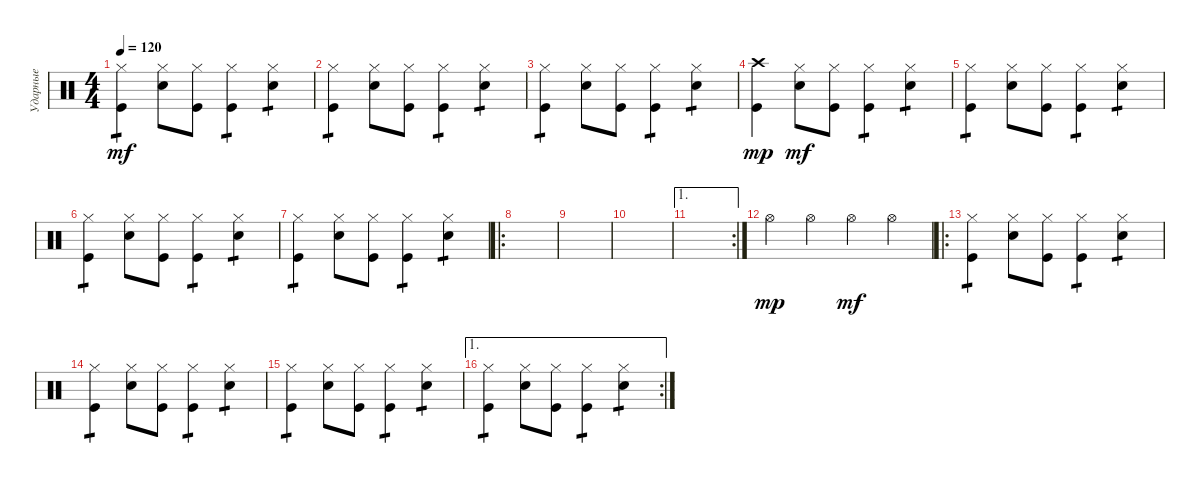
\track ("Ударные" "Ударные") {instrument percussion}
\staff {score}
\articulation defaults
\ts (4 4)
\tempo 120
\clef neutral
\ks c
("Kick (hit)" "Hi-Hat (closed)").4{tp 1 dy mf} ("Snare (hit) 2" "Hi-Hat (closed)").8 ("Kick (hit)" "Hi-Hat (closed)").8 ("Kick (hit)" "Hi-Hat (closed)").4{tp 1} ("Snare (hit) 2" "Hi-Hat (closed)").4{tp 1} |
("Kick (hit)" "Hi-Hat (closed)").4{tp 1} ("Snare (hit) 2" "Hi-Hat (closed)").8 ("Kick (hit)" "Hi-Hat (closed)").8 ("Kick (hit)" "Hi-Hat (closed)").4{tp 1} ("Snare (hit) 2" "Hi-Hat (closed)").4{tp 1} |
("Kick (hit)" "Hi-Hat (closed)").4{tp 1} ("Snare (hit) 2" "Hi-Hat (closed)").8 ("Kick (hit)" "Hi-Hat (closed)").8 ("Kick (hit)" "Hi-Hat (closed)").4{tp 1} ("Snare (hit) 2" "Hi-Hat (closed)").4{tp 1} |
("Kick (hit)" "Crash high (hit)").4{dy mp} ("Snare (hit) 2" "Hi-Hat (closed)").8{dy mf} ("Kick (hit)" "Hi-Hat (closed)").8 ("Kick (hit)" "Hi-Hat (closed)").4{tp 1} ("Snare (hit) 2" "Hi-Hat (closed)").4{tp 1} |
("Kick (hit)" "Hi-Hat (closed)").4{tp 1} ("Snare (hit) 2" "Hi-Hat (closed)").8 ("Kick (hit)" "Hi-Hat (closed)").8 ("Kick (hit)" "Hi-Hat (closed)").4{tp 1} ("Snare (hit) 2" "Hi-Hat (closed)").4{tp 1} |
("Kick (hit)" "Hi-Hat (closed)").4{tp 1} ("Snare (hit) 2" "Hi-Hat (closed)").8 ("Kick (hit)" "Hi-Hat (closed)").8 ("Kick (hit)" "Hi-Hat (closed)").4{tp 1} ("Snare (hit) 2" "Hi-Hat (closed)").4{tp 1} |
("Kick (hit)" "Hi-Hat (closed)").4{tp 1} ("Snare (hit) 2" "Hi-Hat (closed)").8 ("Kick (hit)" "Hi-Hat (closed)").8 ("Kick (hit)" "Hi-Hat (closed)").4{tp 1} ("Snare (hit) 2" "Hi-Hat (closed)").4{tp 1} |
\ro
|
|
|
\ae 1
\rc 2
|
"Hi-Hat (open)".4{dy mp} "Hi-Hat (open)".4 "Hi-Hat (open)".4{dy mf} "Hi-Hat (open)".4 |
\ro
("Kick (hit)" "Hi-Hat (closed)").4{tp 1} ("Snare (hit) 2" "Hi-Hat (closed)").8 ("Kick (hit)" "Hi-Hat (closed)").8 ("Kick (hit)" "Hi-Hat (closed)").4{tp 1} ("Snare (hit) 2" "Hi-Hat (closed)").4{tp 1} |
("Kick (hit)" "Hi-Hat (closed)").4{tp 1} ("Snare (hit) 2" "Hi-Hat (closed)").8 ("Kick (hit)" "Hi-Hat (closed)").8 ("Kick (hit)" "Hi-Hat (closed)").4{tp 1} ("Snare (hit) 2" "Hi-Hat (closed)").4{tp 1} |
("Kick (hit)" "Hi-Hat (closed)").4{tp 1} ("Snare (hit) 2" "Hi-Hat (closed)").8 ("Kick (hit)" "Hi-Hat (closed)").8 ("Kick (hit)" "Hi-Hat (closed)").4{tp 1} ("Snare (hit) 2" "Hi-Hat (closed)").4{tp 1} |
\ae 1
\rc 2
("Kick (hit)" "Hi-Hat (closed)").4{tp 1} ("Snare (hit) 2" "Hi-Hat (closed)").8 ("Kick (hit)" "Hi-Hat (closed)").8 ("Kick (hit)" "Hi-Hat (closed)").4{tp 1} ("Snare (hit) 2" "Hi-Hat (closed)").4{tp 1}
